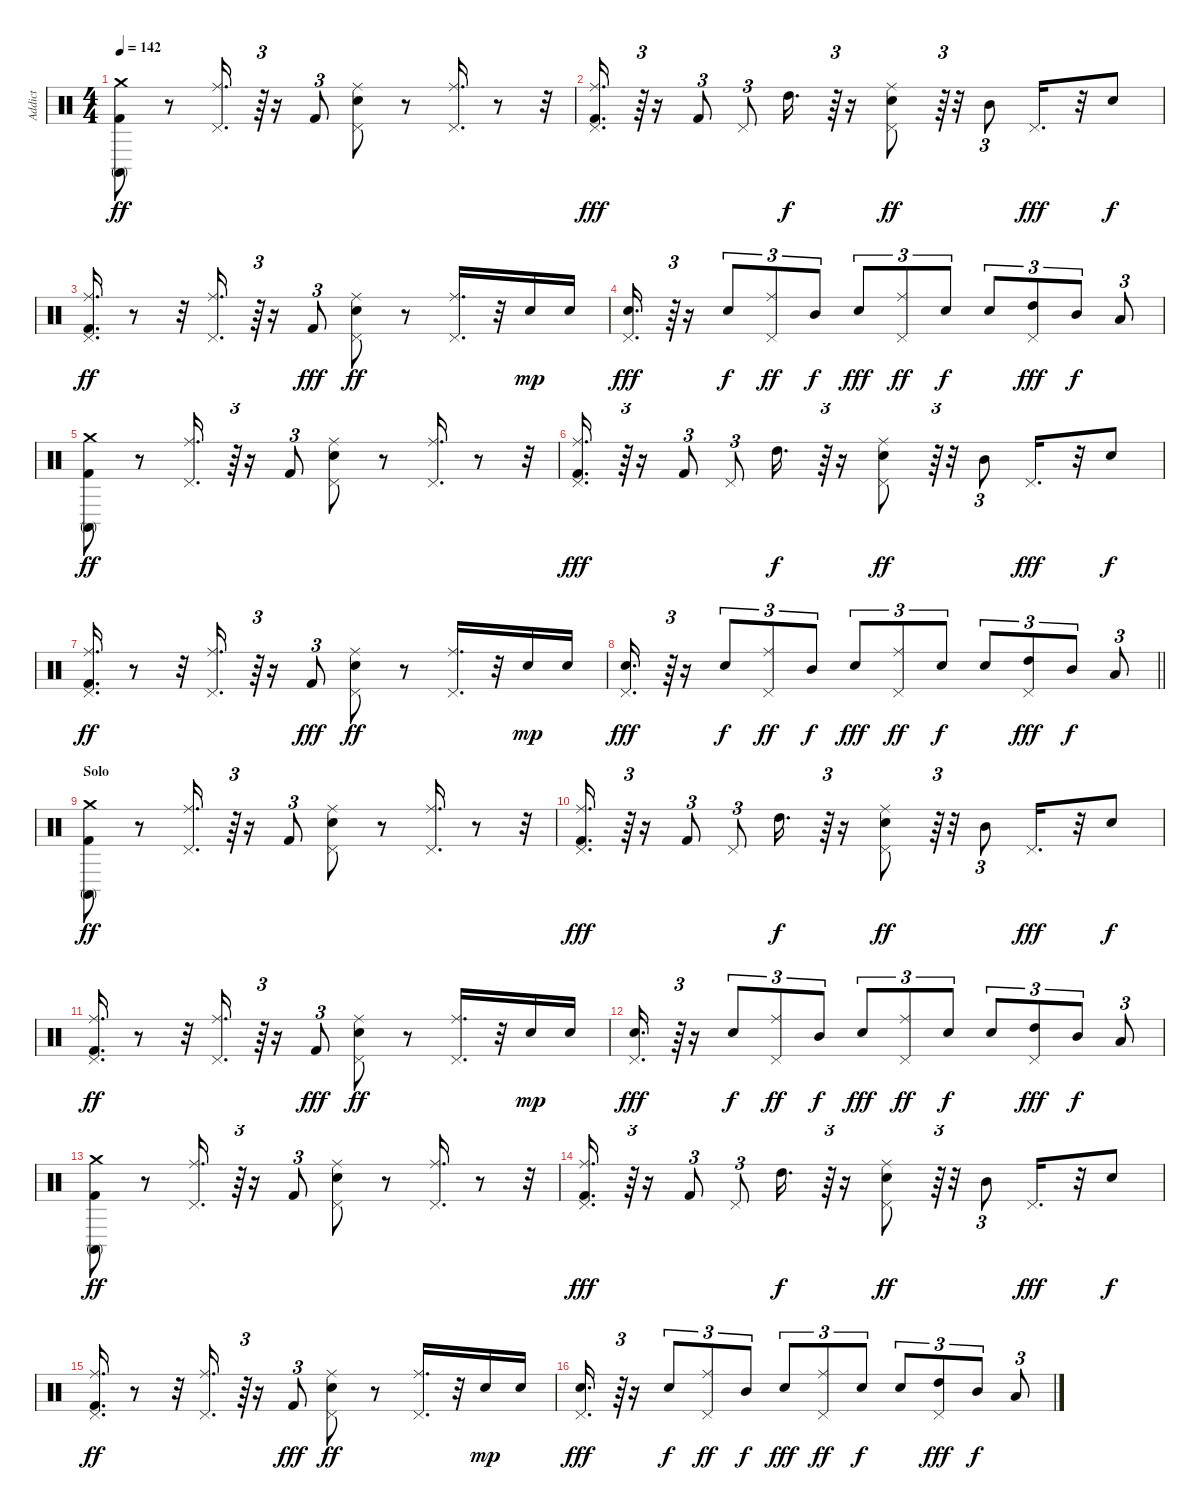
\track ("Addict" "Addict") {instrument percussion}
\staff {score}
\articulation defaults
\ts (4 4)
\tempo 142
\clef neutral
\ks c
("Kick (hit) 2" "Conga high (mute)" "Crash medium (hit)").8{dy ff} r.8 ("Ride (middle)" "Pedal Hi-Hat (hit)").16{d} r.64{tu (3 2)} r.16 "Kick (hit) 2".8{tu (3 2)} ("Snare (hit) 2" "Pedal Hi-Hat (hit)" "Ride (middle)").8 r.8 ("Pedal Hi-Hat (hit)" "Ride (middle)").16{d} r.8 r.32 |
("Kick (hit) 2" "Pedal Hi-Hat (hit)" "Ride (middle)").16{d dy fff} r.64{tu (3 2)} r.16 "Kick (hit) 2".8{tu (3 2)} "Pedal Hi-Hat (hit)".8{tu (3 2)} "High Tom (hit)".16{d dy f} r.64{tu (3 2)} r.16 ("Snare (hit) 2" "Pedal Hi-Hat (hit)" "Ride (middle)").8{dy ff} r.64{tu (3 2)} r.32 "Mid Tom (hit)".8{tu (3 2)} "Pedal Hi-Hat (hit)".16{d dy fff} r.32 "Snare (hit) 2".8{dy f} |
("Kick (hit) 2" "Pedal Hi-Hat (hit)" "Ride (middle)").16{d dy ff} r.8 r.32 ("Pedal Hi-Hat (hit)" "Ride (middle)").16{d} r.64{tu (3 2)} r.16 "Kick (hit) 2".8{tu (3 2) dy fff} ("Snare (hit) 2" "Pedal Hi-Hat (hit)" "Ride (middle)").8{dy ff} r.8 ("Pedal Hi-Hat (hit)" "Ride (middle)").16{d} r.32 "Snare (hit) 2".16{dy mp} "Snare (hit) 2".16 |
("Snare (hit) 2" "Pedal Hi-Hat (hit)").16{d dy fff} r.64{tu (3 2)} r.16 "Snare (hit) 2".8{tu (3 2) dy f} ("Pedal Hi-Hat (hit)" "Ride (middle)").8{tu (3 2) dy ff} "Mid Tom (hit)".8{tu (3 2) dy f} "Snare (hit) 2".8{tu (3 2) dy fff} ("Pedal Hi-Hat (hit)" "Ride (middle)").8{tu (3 2) dy ff} "Snare (hit) 2".8{tu (3 2) dy f} "Snare (hit) 2".8{tu (3 2)} ("Pedal Hi-Hat (hit)" "High Tom (hit)").8{tu (3 2) dy fff} "Mid Tom (hit)".8{tu (3 2) dy f} "Low Tom (hit)".8{tu (3 2)} |
("Kick (hit) 2" "Conga high (mute)" "Crash medium (hit)").8{dy ff} r.8 ("Ride (middle)" "Pedal Hi-Hat (hit)").16{d} r.64{tu (3 2)} r.16 "Kick (hit) 2".8{tu (3 2)} ("Snare (hit) 2" "Pedal Hi-Hat (hit)" "Ride (middle)").8 r.8 ("Pedal Hi-Hat (hit)" "Ride (middle)").16{d} r.8 r.32 |
("Kick (hit) 2" "Pedal Hi-Hat (hit)" "Ride (middle)").16{d dy fff} r.64{tu (3 2)} r.16 "Kick (hit) 2".8{tu (3 2)} "Pedal Hi-Hat (hit)".8{tu (3 2)} "High Tom (hit)".16{d dy f} r.64{tu (3 2)} r.16 ("Snare (hit) 2" "Pedal Hi-Hat (hit)" "Ride (middle)").8{dy ff} r.64{tu (3 2)} r.32 "Mid Tom (hit)".8{tu (3 2)} "Pedal Hi-Hat (hit)".16{d dy fff} r.32 "Snare (hit) 2".8{dy f} |
("Kick (hit) 2" "Pedal Hi-Hat (hit)" "Ride (middle)").16{d dy ff} r.8 r.32 ("Pedal Hi-Hat (hit)" "Ride (middle)").16{d} r.64{tu (3 2)} r.16 "Kick (hit) 2".8{tu (3 2) dy fff} ("Snare (hit) 2" "Pedal Hi-Hat (hit)" "Ride (middle)").8{dy ff} r.8 ("Pedal Hi-Hat (hit)" "Ride (middle)").16{d} r.32 "Snare (hit) 2".16{dy mp} "Snare (hit) 2".16 |
\barLineRight lightlight
("Snare (hit) 2" "Pedal Hi-Hat (hit)").16{d dy fff} r.64{tu (3 2)} r.16 "Snare (hit) 2".8{tu (3 2) dy f} ("Pedal Hi-Hat (hit)" "Ride (middle)").8{tu (3 2) dy ff} "Mid Tom (hit)".8{tu (3 2) dy f} "Snare (hit) 2".8{tu (3 2) dy fff} ("Pedal Hi-Hat (hit)" "Ride (middle)").8{tu (3 2) dy ff} "Snare (hit) 2".8{tu (3 2) dy f} "Snare (hit) 2".8{tu (3 2)} ("Pedal Hi-Hat (hit)" "High Tom (hit)").8{tu (3 2) dy fff} "Mid Tom (hit)".8{tu (3 2) dy f} "Low Tom (hit)".8{tu (3 2)} |
\section ("" "Solo")
("Kick (hit) 2" "Conga high (mute)" "Crash medium (hit)").8{dy ff} r.8 ("Ride (middle)" "Pedal Hi-Hat (hit)").16{d} r.64{tu (3 2)} r.16 "Kick (hit) 2".8{tu (3 2)} ("Snare (hit) 2" "Pedal Hi-Hat (hit)" "Ride (middle)").8 r.8 ("Pedal Hi-Hat (hit)" "Ride (middle)").16{d} r.8 r.32 |
("Kick (hit) 2" "Pedal Hi-Hat (hit)" "Ride (middle)").16{d dy fff} r.64{tu (3 2)} r.16 "Kick (hit) 2".8{tu (3 2)} "Pedal Hi-Hat (hit)".8{tu (3 2)} "High Tom (hit)".16{d dy f} r.64{tu (3 2)} r.16 ("Snare (hit) 2" "Pedal Hi-Hat (hit)" "Ride (middle)").8{dy ff} r.64{tu (3 2)} r.32 "Mid Tom (hit)".8{tu (3 2)} "Pedal Hi-Hat (hit)".16{d dy fff} r.32 "Snare (hit) 2".8{dy f} |
("Kick (hit) 2" "Pedal Hi-Hat (hit)" "Ride (middle)").16{d dy ff} r.8 r.32 ("Pedal Hi-Hat (hit)" "Ride (middle)").16{d} r.64{tu (3 2)} r.16 "Kick (hit) 2".8{tu (3 2) dy fff} ("Snare (hit) 2" "Pedal Hi-Hat (hit)" "Ride (middle)").8{dy ff} r.8 ("Pedal Hi-Hat (hit)" "Ride (middle)").16{d} r.32 "Snare (hit) 2".16{dy mp} "Snare (hit) 2".16 |
("Snare (hit) 2" "Pedal Hi-Hat (hit)").16{d dy fff} r.64{tu (3 2)} r.16 "Snare (hit) 2".8{tu (3 2) dy f} ("Pedal Hi-Hat (hit)" "Ride (middle)").8{tu (3 2) dy ff} "Mid Tom (hit)".8{tu (3 2) dy f} "Snare (hit) 2".8{tu (3 2) dy fff} ("Pedal Hi-Hat (hit)" "Ride (middle)").8{tu (3 2) dy ff} "Snare (hit) 2".8{tu (3 2) dy f} "Snare (hit) 2".8{tu (3 2)} ("Pedal Hi-Hat (hit)" "High Tom (hit)").8{tu (3 2) dy fff} "Mid Tom (hit)".8{tu (3 2) dy f} "Low Tom (hit)".8{tu (3 2)} |
("Kick (hit) 2" "Conga high (mute)" "Crash medium (hit)").8{dy ff} r.8 ("Ride (middle)" "Pedal Hi-Hat (hit)").16{d} r.64{tu (3 2)} r.16 "Kick (hit) 2".8{tu (3 2)} ("Snare (hit) 2" "Pedal Hi-Hat (hit)" "Ride (middle)").8 r.8 ("Pedal Hi-Hat (hit)" "Ride (middle)").16{d} r.8 r.32 |
("Kick (hit) 2" "Pedal Hi-Hat (hit)" "Ride (middle)").16{d dy fff} r.64{tu (3 2)} r.16 "Kick (hit) 2".8{tu (3 2)} "Pedal Hi-Hat (hit)".8{tu (3 2)} "High Tom (hit)".16{d dy f} r.64{tu (3 2)} r.16 ("Snare (hit) 2" "Pedal Hi-Hat (hit)" "Ride (middle)").8{dy ff} r.64{tu (3 2)} r.32 "Mid Tom (hit)".8{tu (3 2)} "Pedal Hi-Hat (hit)".16{d dy fff} r.32 "Snare (hit) 2".8{dy f} |
("Kick (hit) 2" "Pedal Hi-Hat (hit)" "Ride (middle)").16{d dy ff} r.8 r.32 ("Pedal Hi-Hat (hit)" "Ride (middle)").16{d} r.64{tu (3 2)} r.16 "Kick (hit) 2".8{tu (3 2) dy fff} ("Snare (hit) 2" "Pedal Hi-Hat (hit)" "Ride (middle)").8{dy ff} r.8 ("Pedal Hi-Hat (hit)" "Ride (middle)").16{d} r.32 "Snare (hit) 2".16{dy mp} "Snare (hit) 2".16 |
("Snare (hit) 2" "Pedal Hi-Hat (hit)").16{d dy fff} r.64{tu (3 2)} r.16 "Snare (hit) 2".8{tu (3 2) dy f} ("Pedal Hi-Hat (hit)" "Ride (middle)").8{tu (3 2) dy ff} "Mid Tom (hit)".8{tu (3 2) dy f} "Snare (hit) 2".8{tu (3 2) dy fff} ("Pedal Hi-Hat (hit)" "Ride (middle)").8{tu (3 2) dy ff} "Snare (hit) 2".8{tu (3 2) dy f} "Snare (hit) 2".8{tu (3 2)} ("Pedal Hi-Hat (hit)" "High Tom (hit)").8{tu (3 2) dy fff} "Mid Tom (hit)".8{tu (3 2) dy f} "Low Tom (hit)".8{tu (3 2)}
